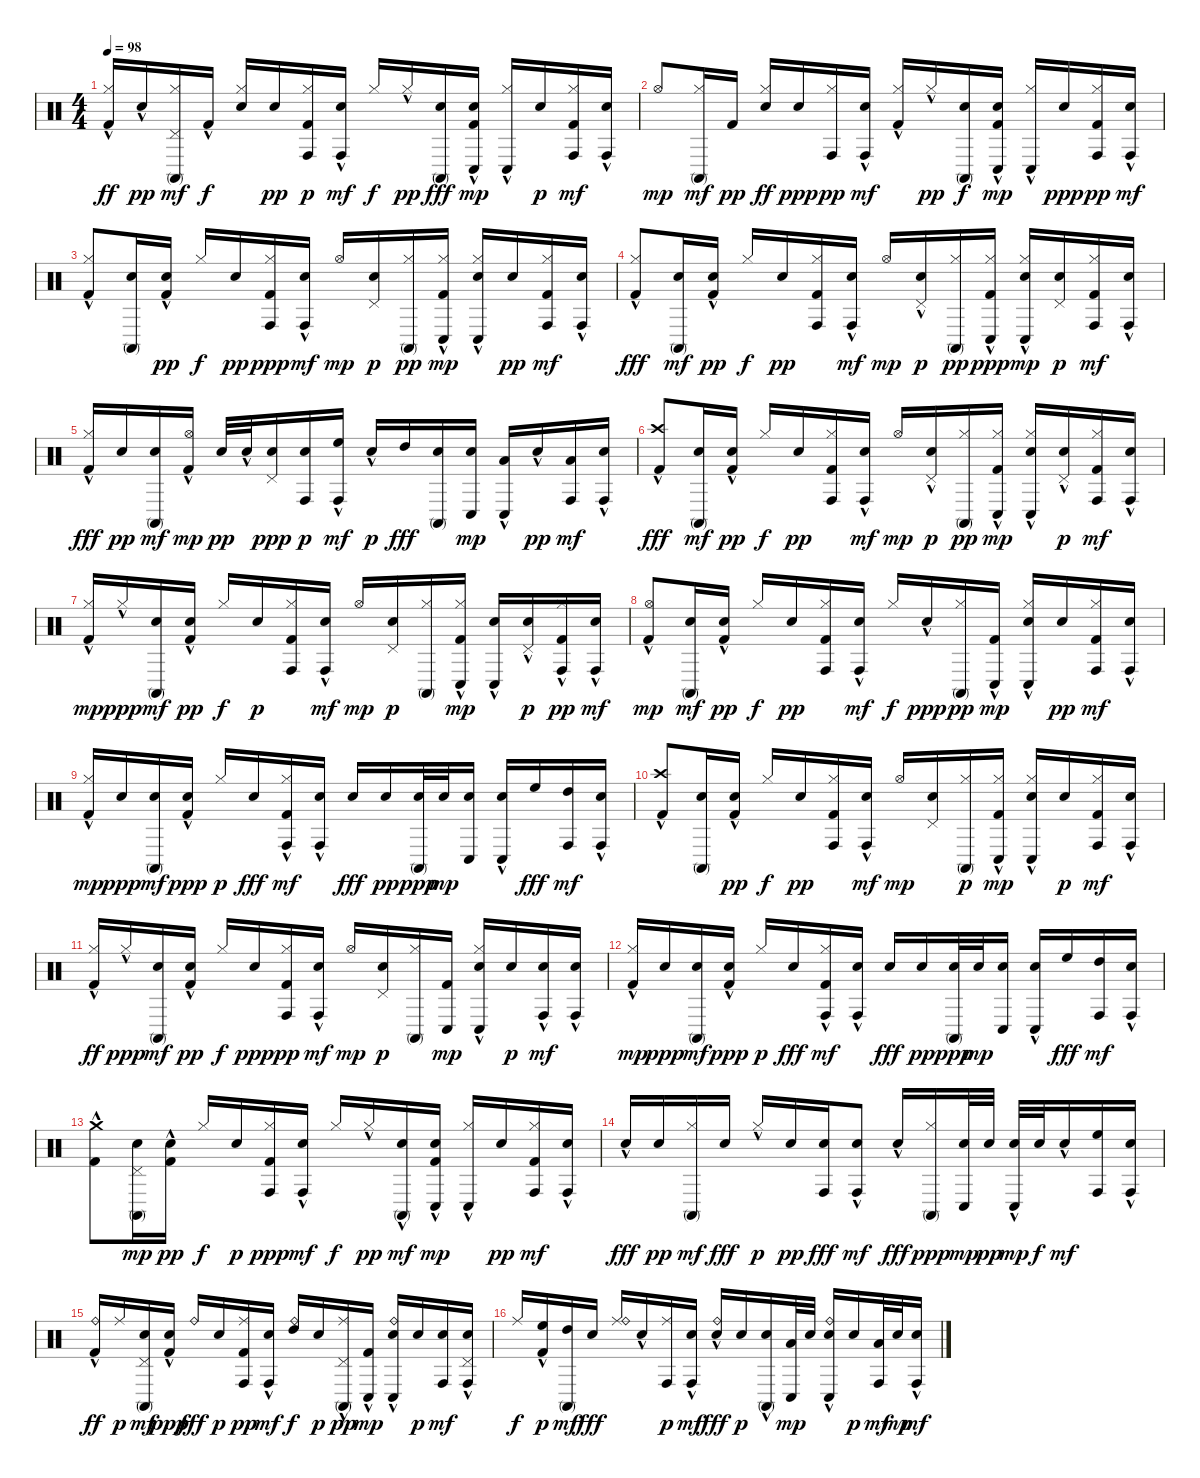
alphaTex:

\track "" {instrument percussion}
\staff {score}
\articulation defaults
\ts (4 4)
\tempo 98
\clef neutral
\ks c
("Kick (hit) 2"{hac} "Hi-Hat (closed)").16{dy ff} "Snare (hit) 2"{hac}.16{dy pp} ("Hi-Hat (closed)" "Pedal Hi-Hat (hit)" "Conga high (mute)").16{dy mf} "Kick (hit) 2"{hac}.16{dy f} ("Snare (hit) 2" "Hi-Hat (closed)").16 "Snare (hit) 2".16{dy pp} ("Conga high (hit)" "Kick (hit) 2" "Hi-Hat (closed)").16{dy p} ("Snare (hit) 2" "Conga high (hit)"{hac}).16{dy mf} "Hi-Hat (closed)".16{dy f} "Hi-Hat (closed)"{hac}.16{dy pp} ("Electric Snare (hit)" "Conga high (mute)").16{dy fff} ("Kick (hit) 2"{hac} "Snare (hit) 2" "Conga low (hit)").16{dy mp} ("Hi-Hat (closed)" "Conga low (hit)"{hac}).16 "Snare (hit) 2".16{dy p} ("Kick (hit) 2" "Hi-Hat (closed)" "Conga high (hit)").16{dy mf} ("Snare (hit) 2" "Conga high (hit)"{hac}).16 |
"Hi-Hat (open)".8{dy mp} ("Hi-Hat (closed)" "Conga high (mute)").16{dy mf} "Kick (hit) 2".16{dy pp} ("Snare (hit) 2" "Hi-Hat (closed)").16{dy ff} "Snare (hit) 2".16{dy ppp} ("Hi-Hat (closed)" "Conga high (hit)").16{dy pp} ("Snare (hit) 2" "Conga high (hit)"{hac}).16{dy mf} ("Kick (hit) 2"{hac} "Hi-Hat (closed)").16 "Hi-Hat (closed)"{hac}.16{dy pp} ("Electric Snare (hit)" "Conga high (mute)").16{dy f} ("Kick (hit) 2"{hac} "Snare (hit) 2" "Conga low (hit)").16{dy mp} ("Hi-Hat (closed)" "Conga low (hit)"{hac}).16 "Snare (hit) 2".16{dy ppp} ("Conga high (hit)" "Kick (hit) 2" "Hi-Hat (closed)").16{dy pp} ("Snare (hit) 2" "Conga high (hit)"{hac}).16{dy mf} |
("Kick (hit) 2"{hac} "Hi-Hat (closed)").8 ("Electric Snare (hit)" "Conga high (mute)").16 ("Kick (hit) 2"{hac} "Snare (hit) 2").16{dy pp} "Hi-Hat (closed)".16{dy f} "Snare (hit) 2".16{dy pp} ("Conga high (hit)" "Kick (hit) 2" "Hi-Hat (closed)").16{dy ppp} ("Electric Snare (hit)" "Conga high (hit)"{hac}).16{dy mf} "Hi-Hat (open)".16{dy mp} ("Snare (hit) 2" "Pedal Hi-Hat (hit)").16{dy p} ("Hi-Hat (closed)" "Conga high (mute)").16{dy pp} ("Kick (hit) 2"{hac} "Hi-Hat (closed)" "Conga low (hit)").16{dy mp} ("Electric Snare (hit)"{hac} "Hi-Hat (closed)" "Conga low (hit)"{hac}).16 "Snare (hit) 2".16{dy pp} ("Kick (hit) 2" "Hi-Hat (closed)" "Conga high (hit)").16{dy mf} ("Snare (hit) 2" "Conga high (hit)"{hac}).16 |
("Kick (hit) 2"{hac} "Hi-Hat (closed)").8{dy fff} ("Electric Snare (hit)" "Conga high (mute)").16{dy mf} ("Kick (hit) 2"{hac} "Snare (hit) 2").16{dy pp} "Hi-Hat (closed)".16{dy f} "Snare (hit) 2".16{dy pp} ("Conga high (hit)" "Kick (hit) 2" "Hi-Hat (closed)").16 ("Electric Snare (hit)" "Conga high (hit)"{hac}).16{dy mf} "Hi-Hat (open)".16{dy mp} ("Snare (hit) 2"{hac} "Pedal Hi-Hat (hit)").16{dy p} ("Hi-Hat (closed)" "Conga high (mute)").16{dy pp} ("Conga low (hit)" "Kick (hit) 2"{hac} "Hi-Hat (closed)").16{dy ppp} ("Snare (hit) 2" "Hi-Hat (closed)" "Conga low (hit)"{hac}).16{dy mp} ("Snare (hit) 2" "Pedal Hi-Hat (hit)").16{dy p} ("Kick (hit) 2" "Hi-Hat (closed)" "Conga high (hit)").16{dy mf} ("Electric Snare (hit)"{hac} "Conga high (hit)"{hac}).16 |
("Kick (hit) 2"{hac} "Hi-Hat (closed)").16{dy fff} "Snare (hit) 2".16{dy pp} ("Snare (hit) 2" "Conga high (mute)").16{dy mf} ("Kick (hit) 2"{hac} "Hi-Hat (open)").16{dy mp} "Snare (hit) 2".32{dy pp} "Snare (hit) 2"{hac}.32 ("Electric Snare (hit)" "Pedal Hi-Hat (hit)").16{dy ppp} ("Snare (hit) 2" "Conga high (hit)").16{dy p} ("High Floor Tom (hit)" "Conga high (hit)"{hac}).16{dy mf} "Snare (hit) 2"{hac}.16{dy p} "High Tom (hit)".16{dy fff} ("Electric Snare (hit)" "Conga high (mute)").16 ("Snare (hit) 2" "Conga low (hit)").16{dy mp} ("Low Tom (hit)" "Conga low (hit)"{hac}).16 "Snare (hit) 2"{hac}.16{dy pp} ("Low Floor Tom (hit)" "Conga high (hit)").16{dy mf} ("Electric Snare (hit)"{hac} "Conga high (hit)"{hac}).16 |
("Kick (hit) 2"{hac} "Crash high (hit)").8{dy fff} ("Electric Snare (hit)" "Conga high (mute)").16{dy mf} ("Kick (hit) 2"{hac} "Snare (hit) 2").16{dy pp} "Hi-Hat (closed)".16{dy f} "Snare (hit) 2".16{dy pp} ("Conga high (hit)" "Kick (hit) 2" "Hi-Hat (closed)").16 ("Electric Snare (hit)" "Conga high (hit)"{hac}).16{dy mf} "Hi-Hat (open)".16{dy mp} ("Snare (hit) 2"{hac} "Pedal Hi-Hat (hit)").16{dy p} ("Hi-Hat (closed)" "Conga high (mute)").16{dy pp} ("Kick (hit) 2"{hac} "Hi-Hat (closed)" "Conga low (hit)").16{dy mp} ("Conga low (hit)"{hac} "Snare (hit) 2" "Hi-Hat (closed)").16 ("Snare (hit) 2"{hac} "Pedal Hi-Hat (hit)"{hac}).16{dy p} ("Kick (hit) 2" "Hi-Hat (closed)" "Conga high (hit)").16{dy mf} ("Electric Snare (hit)"{hac} "Conga high (hit)"{hac}).16 |
("Kick (hit) 2"{hac} "Hi-Hat (closed)").16{dy mp} "Hi-Hat (closed)"{hac}.16{dy ppp} ("Electric Snare (hit)" "Conga high (mute)").16{dy mf} ("Kick (hit) 2"{hac} "Snare (hit) 2").16{dy pp} "Hi-Hat (closed)".16{dy f} "Snare (hit) 2".16{dy p} ("Kick (hit) 2" "Hi-Hat (closed)" "Conga high (hit)").16 ("Electric Snare (hit)" "Conga high (hit)"{hac}).16{dy mf} "Hi-Hat (open)".16{dy mp} ("Snare (hit) 2" "Pedal Hi-Hat (hit)").16{dy p} ("Hi-Hat (closed)" "Conga high (mute)").16 ("Kick (hit) 2"{hac} "Hi-Hat (closed)"{hac} "Conga low (hit)").16{dy mp} ("Electric Snare (hit)"{hac} "Conga low (hit)"{hac}).16 ("Snare (hit) 2"{hac} "Pedal Hi-Hat (hit)").16{dy p} ("Conga high (hit)" "Kick (hit) 2" "Hi-Hat (closed)"{hac}).16{dy pp} ("Electric Snare (hit)"{hac} "Conga high (hit)"{hac}).16{dy mf} |
("Kick (hit) 2"{hac} "Hi-Hat (open)").8{dy mp} ("Electric Snare (hit)" "Conga high (mute)").16{dy mf} ("Kick (hit) 2"{hac} "Snare (hit) 2").16{dy pp} "Hi-Hat (closed)".16{dy f} "Snare (hit) 2".16{dy pp} ("Kick (hit) 2" "Hi-Hat (closed)" "Conga high (hit)").16 ("Snare (hit) 2" "Conga high (hit)"{hac}).16{dy mf} "Hi-Hat (closed)".16{dy f} "Snare (hit) 2"{hac}.16{dy ppp} ("Hi-Hat (closed)" "Conga high (mute)").16{dy pp} ("Kick (hit) 2"{hac} "Conga low (hit)").16{dy mp} ("Snare (hit) 2" "Hi-Hat (closed)" "Conga low (hit)"{hac}).16 "Snare (hit) 2".16{dy pp} ("Kick (hit) 2" "Hi-Hat (closed)" "Conga high (hit)").16{dy mf} ("Snare (hit) 2" "Conga high (hit)"{hac}).16 |
("Kick (hit) 2"{hac} "Hi-Hat (closed)").16{dy mp} "Snare (hit) 2".16{dy ppp} ("Snare (hit) 2" "Conga high (mute)").16{dy mf} ("Kick (hit) 2"{hac} "Snare (hit) 2").16{dy ppp} "Hi-Hat (closed)".16{dy p} "Electric Snare (hit)".16{dy fff} ("Kick (hit) 2" "Hi-Hat (closed)"{hac} "Conga high (hit)").16{dy mf} ("Snare (hit) 2" "Conga high (hit)"{hac}).16 "Snare (hit) 2".16{dy fff} "Snare (hit) 2".16{dy pp} ("Snare (hit) 2" "Conga high (mute)").32{dy ppp} "Electric Snare (hit)".32{dy mp} ("Electric Snare (hit)" "Conga low (hit)").16 ("Snare (hit) 2"{hac} "Conga low (hit)"{hac}).16 "High Floor Tom (hit)".16{dy fff} ("High Tom (hit)" "Conga high (hit)").16{dy mf} ("Electric Snare (hit)"{hac} "Conga high (hit)"{hac}).16 |
("Kick (hit) 2"{hac} "Crash high (hit)").8 ("Electric Snare (hit)" "Conga high (mute)").16 ("Kick (hit) 2"{hac} "Snare (hit) 2").16{dy pp} "Hi-Hat (closed)".16{dy f} "Snare (hit) 2".16{dy pp} ("Kick (hit) 2" "Hi-Hat (closed)" "Conga high (hit)").16 ("Electric Snare (hit)" "Conga high (hit)"{hac}).16{dy mf} "Hi-Hat (open)".16{dy mp} ("Snare (hit) 2" "Pedal Hi-Hat (hit)").16 ("Hi-Hat (closed)" "Conga high (mute)").16{dy p} ("Kick (hit) 2"{hac} "Hi-Hat (closed)" "Conga low (hit)").16{dy mp} ("Electric Snare (hit)"{hac} "Hi-Hat (closed)" "Conga low (hit)"{hac}).16 "Snare (hit) 2".16{dy p} ("Kick (hit) 2" "Hi-Hat (closed)" "Conga high (hit)").16{dy mf} ("Snare (hit) 2" "Conga high (hit)"{hac}).16 |
("Kick (hit) 2"{hac} "Hi-Hat (closed)").16{dy ff} "Hi-Hat (closed)"{hac}.16{dy ppp} ("Electric Snare (hit)" "Conga high (mute)").16{dy mf} ("Kick (hit) 2"{hac} "Snare (hit) 2").16{dy pp} "Hi-Hat (closed)".16{dy f} "Snare (hit) 2".16{dy ppp} ("Kick (hit) 2" "Hi-Hat (closed)" "Conga high (hit)").16{dy pp} ("Electric Snare (hit)" "Conga high (hit)"{hac}).16{dy mf} "Hi-Hat (open)".16{dy mp} ("Snare (hit) 2" "Pedal Hi-Hat (hit)").16{dy p} ("Hi-Hat (closed)" "Conga high (mute)").16 ("Kick (hit) 2" "Conga low (hit)").16{dy mp} ("Electric Snare (hit)"{hac} "Hi-Hat (closed)" "Conga low (hit)"{hac}).16 "Snare (hit) 2".16{dy p} ("Snare (hit) 2"{hac} "Conga high (hit)").16{dy mf} ("Electric Snare (hit)"{hac} "Conga high (hit)"{hac}).16 |
("Kick (hit) 2"{hac} "Hi-Hat (closed)").16{dy mp} "Snare (hit) 2".16{dy ppp} ("Snare (hit) 2" "Conga high (mute)").16{dy mf} ("Kick (hit) 2"{hac} "Snare (hit) 2").16{dy ppp} "Hi-Hat (closed)".16{dy p} "Electric Snare (hit)".16{dy fff} ("Conga high (hit)" "Kick (hit) 2" "Hi-Hat (closed)"{hac}).16{dy mf} ("Snare (hit) 2" "Conga high (hit)"{hac}).16 "Snare (hit) 2".16{dy fff} "Snare (hit) 2".16{dy pp} ("Snare (hit) 2" "Conga high (mute)").32{dy ppp} "Electric Snare (hit)".32{dy mp} ("Electric Snare (hit)" "Conga low (hit)").16 ("Snare (hit) 2"{hac} "Conga low (hit)"{hac}).16 "High Floor Tom (hit)".16{dy fff} ("High Tom (hit)" "Conga high (hit)").16{dy mf} ("Electric Snare (hit)"{hac} "Conga high (hit)"{hac}).16 |
("Kick (hit) 2"{hac} "Crash medium (hit)").8 ("Conga high (mute)" "Electric Snare (hit)" "Pedal Hi-Hat (hit)").16{dy mp} ("Kick (hit) 2"{hac} "Snare (hit) 2").16{dy pp} "Hi-Hat (closed)".16{dy f} "Snare (hit) 2".16{dy p} ("Conga high (hit)" "Kick (hit) 2" "Hi-Hat (closed)").16{dy ppp} ("Snare (hit) 2" "Conga high (hit)"{hac}).16{dy mf} "Hi-Hat (closed)".16{dy f} "Hi-Hat (closed)"{hac}.16{dy pp} ("Electric Snare (hit)"{hac} "Conga high (mute)").16{dy mf} ("Kick (hit) 2"{hac} "Snare (hit) 2" "Conga low (hit)").16{dy mp} ("Hi-Hat (closed)" "Conga low (hit)"{hac}).16 "Snare (hit) 2".16{dy pp} ("Kick (hit) 2" "Hi-Hat (closed)" "Conga high (hit)").16{dy mf} ("Snare (hit) 2" "Conga high (hit)"{hac}).16 |
"Electric Snare (hit)"{hac}.16{dy fff} "Snare (hit) 2".16{dy pp} ("Hi-Hat (closed)" "Conga high (mute)").16{dy mf} "Electric Snare (hit)".16{dy fff} "Hi-Hat (closed)"{hac}.16{dy p} "Snare (hit) 2".16{dy pp} ("Snare (hit) 2" "Conga high (hit)").16{dy fff} ("Electric Snare (hit)" "Conga high (hit)"{hac}).8{dy mf} "Electric Snare (hit)"{hac}.16{dy fff} ("Hi-Hat (closed)" "Conga high (mute)").16{dy ppp} ("Snare (hit) 2" "Conga low (hit)").32{dy mp} "Snare (hit) 2".32{dy pp} ("Snare (hit) 2" "Conga low (hit)"{hac}).32{dy mp} "Snare (hit) 2".32{dy f} "Snare (hit) 2"{hac}.16{dy mf} ("High Floor Tom (hit)" "Conga high (hit)").16 ("Electric Snare (hit)"{hac} "Conga high (hit)"{hac}).16 |
("Kick (hit) 2"{hac} "Ride (bell)").16{dy ff} "Ride (middle)".16{dy p} ("Electric Snare (hit)" "Pedal Hi-Hat (hit)" "Conga high (mute)").16{dy mf} ("Kick (hit) 2"{hac} "Snare (hit) 2").16{dy ppp} "Ride (bell)".16{dy fff} "Snare (hit) 2".16{dy p} ("Conga high (hit)" "Kick (hit) 2" "Ride (middle)").16{dy pp} ("Electric Snare (hit)" "Conga high (hit)"{hac}).16{dy mf} ("High Tom (hit)" "Ride (bell)").16{dy f} "Snare (hit) 2".16{dy p} ("Pedal Hi-Hat (hit)" "Ride (middle)"{hac} "Conga high (mute)").16{dy pp} ("Kick (hit) 2"{hac} "Conga low (hit)").16{dy mp} ("Electric Snare (hit)"{hac} "Conga low (hit)"{hac} "Ride (bell)").16 "Snare (hit) 2".16{dy p} ("Snare (hit) 2" "Conga high (hit)").16{dy mf} ("Electric Snare (hit)" "Pedal Hi-Hat (hit)" "Conga high (hit)"{hac}).16 |
"Ride (middle)".16{dy f} ("Kick (hit) 2"{hac} "High Floor Tom (hit)").16{dy p} ("High Tom (hit)" "Conga high (mute)").16{dy mf} "Electric Snare (hit)".16{dy fff} ("Ride (middle)" "Ride (bell)").16 "Electric Snare (hit)"{hac}.16 ("Ride (middle)" "Conga high (hit)").16{dy p} ("Snare (hit) 2" "Conga high (hit)"{hac}).16{dy mf} ("Electric Snare (hit)"{hac} "Ride (bell)").16{dy fff} "Snare (hit) 2".16{dy p} ("Snare (hit) 2"{hac} "Conga high (mute)").16 ("Low Tom (hit)" "Conga low (hit)").32{dy mp} "Electric Snare (hit)".32 ("Electric Snare (hit)" "Conga low (hit)"{hac} "Ride (bell)").16 "Snare (hit) 2".16{dy p} ("Low Floor Tom (hit)" "Conga high (hit)").32{dy mf} "Electric Snare (hit)".32{dy mp} ("Electric Snare (hit)" "Conga high (hit)"{hac}).16{dy mf}
